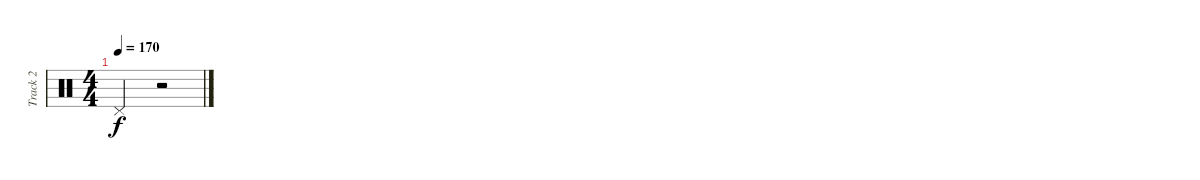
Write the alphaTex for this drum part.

\track ("Track 2" "Track 2") {instrument percussion}
\staff {score}
\articulation defaults
\ts (4 4)
\tempo 170
\clef neutral
\ks c "Pedal Hi-Hat (hit)".2{dy f}
r.2
